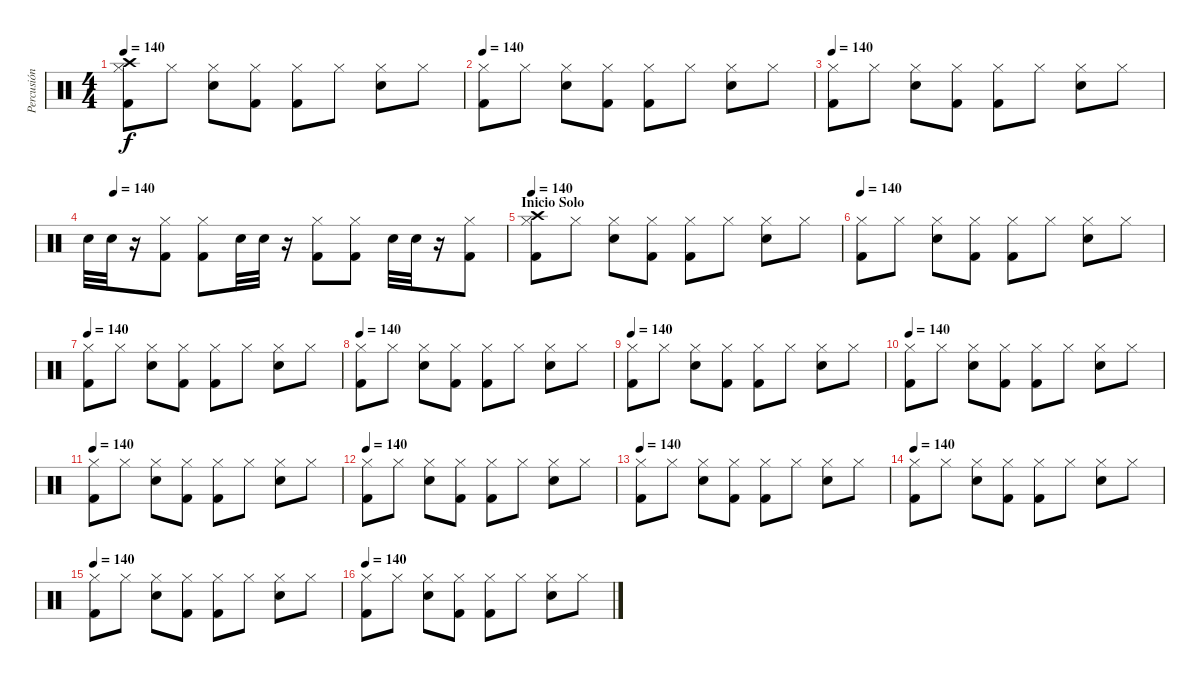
\track ("Percusión" "Percusión") {instrument percussion}
\staff {score}
\articulation defaults
\ts (4 4)
\tempo 140
\clef neutral
\ks c
("Kick (hit) 2" "Crash high (hit)" "Hi-Hat (closed)").8{dy f} "Hi-Hat (closed)".8 ("Snare (hit) 2" "Hi-Hat (closed)").8 ("Kick (hit) 2" "Hi-Hat (closed)").8 ("Kick (hit) 2" "Hi-Hat (closed)").8 "Hi-Hat (closed)".8 ("Snare (hit) 2" "Hi-Hat (closed)").8 "Hi-Hat (closed)".8 |
\tempo 140
("Kick (hit) 2" "Hi-Hat (closed)").8 "Hi-Hat (closed)".8 ("Snare (hit) 2" "Hi-Hat (closed)").8 ("Kick (hit) 2" "Hi-Hat (closed)").8 ("Kick (hit) 2" "Hi-Hat (closed)").8 "Hi-Hat (closed)".8 ("Snare (hit) 2" "Hi-Hat (closed)").8 "Hi-Hat (closed)".8 |
\tempo 140
("Kick (hit) 2" "Hi-Hat (closed)").8 "Hi-Hat (closed)".8 ("Snare (hit) 2" "Hi-Hat (closed)").8 ("Kick (hit) 2" "Hi-Hat (closed)").8 ("Kick (hit) 2" "Hi-Hat (closed)").8 "Hi-Hat (closed)".8 ("Snare (hit) 2" "Hi-Hat (closed)").8 "Hi-Hat (closed)".8 |
\tempo (140 0.0625)
"Snare (hit) 2".32 "Snare (hit) 2".32 r.16 ("Kick (hit) 2" "Hi-Hat (closed)").8 ("Kick (hit) 2" "Hi-Hat (closed)").8 "Snare (hit) 2".32 "Snare (hit) 2".32 r.16 ("Kick (hit) 2" "Hi-Hat (closed)").8 ("Kick (hit) 2" "Hi-Hat (closed)").8 "Snare (hit) 2".32 "Snare (hit) 2".32 r.16 ("Kick (hit) 2" "Hi-Hat (closed)").8 |
\section ("" "Inicio Solo")
\tempo 140
("Kick (hit) 2" "Crash high (hit)" "Hi-Hat (closed)").8 "Hi-Hat (closed)".8 ("Snare (hit) 2" "Hi-Hat (closed)").8 ("Kick (hit) 2" "Hi-Hat (closed)").8 ("Kick (hit) 2" "Hi-Hat (closed)").8 "Hi-Hat (closed)".8 ("Snare (hit) 2" "Hi-Hat (closed)").8 "Hi-Hat (closed)".8 |
\tempo 140
("Kick (hit) 2" "Hi-Hat (closed)").8 "Hi-Hat (closed)".8 ("Snare (hit) 2" "Hi-Hat (closed)").8 ("Kick (hit) 2" "Hi-Hat (closed)").8 ("Kick (hit) 2" "Hi-Hat (closed)").8 "Hi-Hat (closed)".8 ("Snare (hit) 2" "Hi-Hat (closed)").8 "Hi-Hat (closed)".8 |
\tempo 140
("Kick (hit) 2" "Hi-Hat (closed)").8 "Hi-Hat (closed)".8 ("Snare (hit) 2" "Hi-Hat (closed)").8 ("Kick (hit) 2" "Hi-Hat (closed)").8 ("Kick (hit) 2" "Hi-Hat (closed)").8 "Hi-Hat (closed)".8 ("Snare (hit) 2" "Hi-Hat (closed)").8 "Hi-Hat (closed)".8 |
\tempo 140
("Kick (hit) 2" "Hi-Hat (closed)").8 "Hi-Hat (closed)".8 ("Snare (hit) 2" "Hi-Hat (closed)").8 ("Kick (hit) 2" "Hi-Hat (closed)").8 ("Kick (hit) 2" "Hi-Hat (closed)").8 "Hi-Hat (closed)".8 ("Snare (hit) 2" "Hi-Hat (closed)").8 "Hi-Hat (closed)".8 |
\tempo 140
("Kick (hit) 2" "Hi-Hat (closed)").8 "Hi-Hat (closed)".8 ("Snare (hit) 2" "Hi-Hat (closed)").8 ("Kick (hit) 2" "Hi-Hat (closed)").8 ("Kick (hit) 2" "Hi-Hat (closed)").8 "Hi-Hat (closed)".8 ("Snare (hit) 2" "Hi-Hat (closed)").8 "Hi-Hat (closed)".8 |
\tempo 140
("Kick (hit) 2" "Hi-Hat (closed)").8 "Hi-Hat (closed)".8 ("Snare (hit) 2" "Hi-Hat (closed)").8 ("Kick (hit) 2" "Hi-Hat (closed)").8 ("Kick (hit) 2" "Hi-Hat (closed)").8 "Hi-Hat (closed)".8 ("Snare (hit) 2" "Hi-Hat (closed)").8 "Hi-Hat (closed)".8 |
\tempo 140
("Kick (hit) 2" "Hi-Hat (closed)").8 "Hi-Hat (closed)".8 ("Snare (hit) 2" "Hi-Hat (closed)").8 ("Kick (hit) 2" "Hi-Hat (closed)").8 ("Kick (hit) 2" "Hi-Hat (closed)").8 "Hi-Hat (closed)".8 ("Snare (hit) 2" "Hi-Hat (closed)").8 "Hi-Hat (closed)".8 |
\tempo 140
("Kick (hit) 2" "Hi-Hat (closed)").8 "Hi-Hat (closed)".8 ("Snare (hit) 2" "Hi-Hat (closed)").8 ("Kick (hit) 2" "Hi-Hat (closed)").8 ("Kick (hit) 2" "Hi-Hat (closed)").8 "Hi-Hat (closed)".8 ("Snare (hit) 2" "Hi-Hat (closed)").8 "Hi-Hat (closed)".8 |
\tempo 140
("Kick (hit) 2" "Hi-Hat (closed)").8 "Hi-Hat (closed)".8 ("Snare (hit) 2" "Hi-Hat (closed)").8 ("Kick (hit) 2" "Hi-Hat (closed)").8 ("Kick (hit) 2" "Hi-Hat (closed)").8 "Hi-Hat (closed)".8 ("Snare (hit) 2" "Hi-Hat (closed)").8 "Hi-Hat (closed)".8 |
\tempo 140
("Kick (hit) 2" "Hi-Hat (closed)").8 "Hi-Hat (closed)".8 ("Snare (hit) 2" "Hi-Hat (closed)").8 ("Kick (hit) 2" "Hi-Hat (closed)").8 ("Kick (hit) 2" "Hi-Hat (closed)").8 "Hi-Hat (closed)".8 ("Snare (hit) 2" "Hi-Hat (closed)").8 "Hi-Hat (closed)".8 |
\tempo 140
("Kick (hit) 2" "Hi-Hat (closed)").8 "Hi-Hat (closed)".8 ("Snare (hit) 2" "Hi-Hat (closed)").8 ("Kick (hit) 2" "Hi-Hat (closed)").8 ("Kick (hit) 2" "Hi-Hat (closed)").8 "Hi-Hat (closed)".8 ("Snare (hit) 2" "Hi-Hat (closed)").8 "Hi-Hat (closed)".8 |
\tempo 140
("Kick (hit) 2" "Hi-Hat (closed)").8 "Hi-Hat (closed)".8 ("Snare (hit) 2" "Hi-Hat (closed)").8 ("Kick (hit) 2" "Hi-Hat (closed)").8 ("Kick (hit) 2" "Hi-Hat (closed)").8 "Hi-Hat (closed)".8 ("Snare (hit) 2" "Hi-Hat (closed)").8 "Hi-Hat (closed)".8
